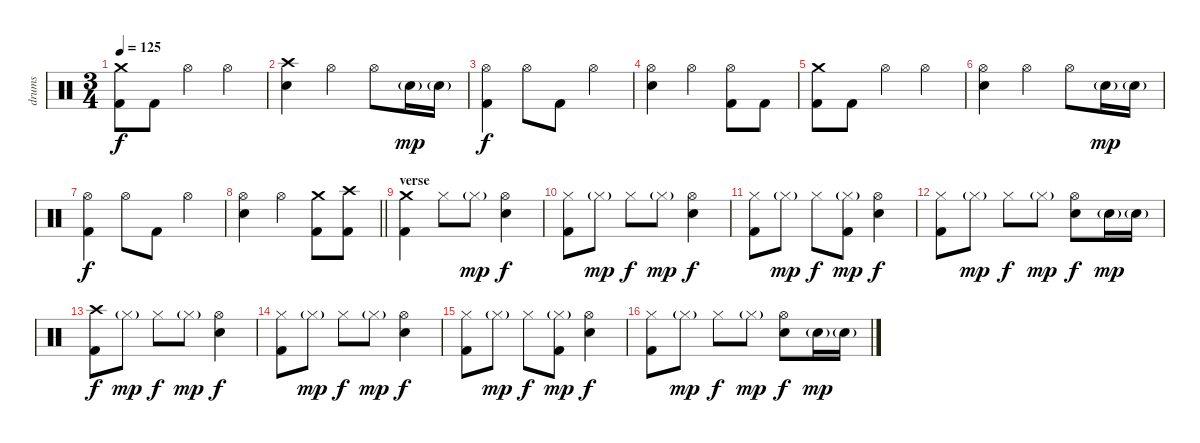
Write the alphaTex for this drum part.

\track ("drums" "drums") {instrument percussion}
\staff {score}
\articulation defaults
\ts (3 4)
\tempo 125
\clef neutral
\ks c
("Crash medium (hit)" "Kick (hit) 2").8{dy f} "Kick (hit) 2".8 "Hi-Hat (open)".4 "Hi-Hat (open)".4 |
("Crash high (hit)" "Electric Snare (hit)").4 "Hi-Hat (open)".4 "Hi-Hat (open)".8 "Electric Snare (hit)"{g}.16{dy mp} "Electric Snare (hit)"{g}.16 |
("Hi-Hat (open)" "Kick (hit) 2").4{dy f} "Hi-Hat (open)".8 "Kick (hit) 2".8 "Hi-Hat (open)".4 |
("Hi-Hat (open)" "Electric Snare (hit)").4 "Hi-Hat (open)".4 ("Hi-Hat (open)" "Kick (hit) 2").8 "Kick (hit) 2".8 |
("Crash medium (hit)" "Kick (hit) 2").8 "Kick (hit) 2".8 "Hi-Hat (open)".4 "Hi-Hat (open)".4 |
("Hi-Hat (open)" "Electric Snare (hit)").4 "Hi-Hat (open)".4 "Hi-Hat (open)".8 "Electric Snare (hit)"{g}.16{dy mp} "Electric Snare (hit)"{g}.16 |
("Hi-Hat (open)" "Kick (hit) 2").4{dy f} "Hi-Hat (open)".8 "Kick (hit) 2".8 "Hi-Hat (open)".4 |
\barLineRight lightlight
("Hi-Hat (open)" "Electric Snare (hit)").4 "Hi-Hat (open)".4 ("Crash medium (hit)" "Kick (hit) 2").8 ("Crash high (hit)" "Kick (hit) 2").8 |
\section ("" "verse")
("Crash medium (hit)" "Kick (hit) 2").4 "Hi-Hat (closed)".8 "Hi-Hat (closed)"{g}.8{dy mp} ("Hi-Hat (open)" "Electric Snare (hit)").4{dy f} |
("Hi-Hat (closed)" "Kick (hit) 2").8 "Hi-Hat (closed)"{g}.8{dy mp} "Hi-Hat (closed)".8{dy f} "Hi-Hat (closed)"{g}.8{dy mp} ("Hi-Hat (open)" "Electric Snare (hit)").4{dy f} |
("Hi-Hat (closed)" "Kick (hit) 2").8 "Hi-Hat (closed)"{g}.8{dy mp} "Hi-Hat (closed)".8{dy f} ("Hi-Hat (closed)"{g} "Kick (hit) 2").8{dy mp} ("Hi-Hat (open)" "Electric Snare (hit)").4{dy f} |
("Hi-Hat (closed)" "Kick (hit) 2").8 "Hi-Hat (closed)"{g}.8{dy mp} "Hi-Hat (closed)".8{dy f} "Hi-Hat (closed)"{g}.8{dy mp} ("Hi-Hat (open)" "Electric Snare (hit)").8{dy f} "Electric Snare (hit)"{g}.16{dy mp} "Electric Snare (hit)"{g}.16 |
("Crash high (hit)" "Kick (hit) 2").8{dy f} "Hi-Hat (closed)"{g}.8{dy mp} "Hi-Hat (closed)".8{dy f} "Hi-Hat (closed)"{g}.8{dy mp} ("Hi-Hat (open)" "Electric Snare (hit)").4{dy f} |
("Hi-Hat (closed)" "Kick (hit) 2").8 "Hi-Hat (closed)"{g}.8{dy mp} "Hi-Hat (closed)".8{dy f} "Hi-Hat (closed)"{g}.8{dy mp} ("Hi-Hat (open)" "Electric Snare (hit)").4{dy f} |
("Hi-Hat (closed)" "Kick (hit) 2").8 "Hi-Hat (closed)"{g}.8{dy mp} "Hi-Hat (closed)".8{dy f} ("Hi-Hat (closed)"{g} "Kick (hit) 2").8{dy mp} ("Hi-Hat (open)" "Electric Snare (hit)").4{dy f} |
("Hi-Hat (closed)" "Kick (hit) 2").8 "Hi-Hat (closed)"{g}.8{dy mp} "Hi-Hat (closed)".8{dy f} "Hi-Hat (closed)"{g}.8{dy mp} ("Hi-Hat (open)" "Electric Snare (hit)").8{dy f} "Electric Snare (hit)"{g}.16{dy mp} "Electric Snare (hit)"{g}.16
